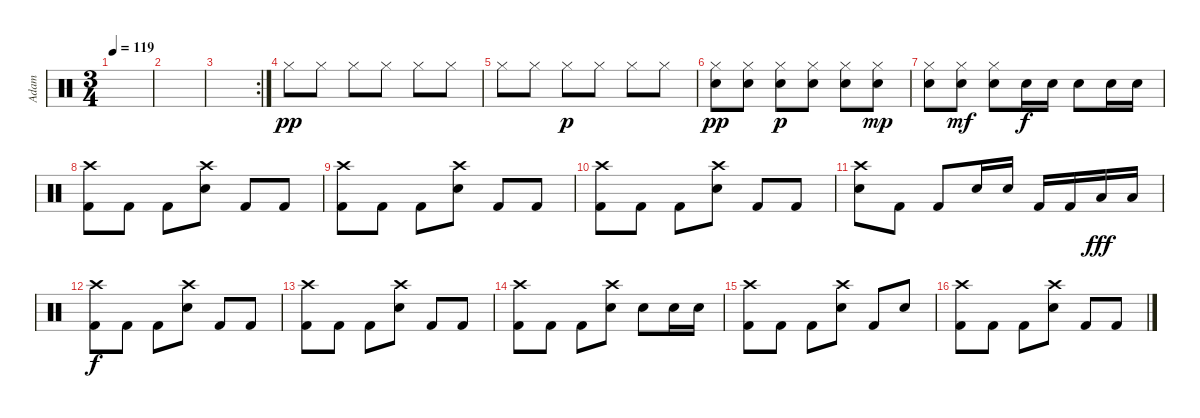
\track ("Adam" "Adam") {instrument percussion}
\staff {score}
\articulation defaults
\ts (3 4)
\tempo 119
\clef neutral
\ks c
|
|
\rc 2
|
"Hi-Hat (closed)".8{dy pp} "Hi-Hat (closed)".8 "Hi-Hat (closed)".8 "Hi-Hat (closed)".8 "Hi-Hat (closed)".8 "Hi-Hat (closed)".8 |
"Hi-Hat (closed)".8 "Hi-Hat (closed)".8 "Hi-Hat (closed)".8{dy p} "Hi-Hat (closed)".8 "Hi-Hat (closed)".8 "Hi-Hat (closed)".8 |
("Hi-Hat (closed)" "Electric Snare (hit)").8{dy pp} ("Hi-Hat (closed)" "Electric Snare (hit)").8 ("Hi-Hat (closed)" "Electric Snare (hit)").8{dy p} ("Hi-Hat (closed)" "Electric Snare (hit)").8 ("Hi-Hat (closed)" "Electric Snare (hit)").8 ("Hi-Hat (closed)" "Electric Snare (hit)").8{dy mp} |
("Hi-Hat (closed)" "Electric Snare (hit)").8 ("Hi-Hat (closed)" "Electric Snare (hit)").8{dy mf} ("Hi-Hat (closed)" "Electric Snare (hit)").8 "Electric Snare (hit)".16{dy f} "Electric Snare (hit)".16 "Electric Snare (hit)".8 "Electric Snare (hit)".16 "Electric Snare (hit)".16 |
("Crash high (hit)" "Kick (hit) 2").8 "Kick (hit) 2".8 "Kick (hit) 2".8 ("Crash high (hit)" "Electric Snare (hit)").8 "Kick (hit) 2".8 "Kick (hit) 2".8 |
("Crash high (hit)" "Kick (hit) 2").8 "Kick (hit) 2".8 "Kick (hit) 2".8 ("Crash high (hit)" "Electric Snare (hit)").8 "Kick (hit) 2".8 "Kick (hit) 2".8 |
("Crash high (hit)" "Kick (hit) 2").8 "Kick (hit) 2".8 "Kick (hit) 2".8 ("Crash high (hit)" "Electric Snare (hit)").8 "Kick (hit) 2".8 "Kick (hit) 2".8 |
("Crash high (hit)" "Electric Snare (hit)").8 "Kick (hit) 2".8 "Kick (hit) 2".8 "Electric Snare (hit)".16 "Electric Snare (hit)".16 "Kick (hit) 2".16 "Kick (hit) 2".16 "Low Tom (hit)".16{dy fff} "Low Tom (hit)".16 |
("Crash high (hit)" "Kick (hit) 2").8{dy f} "Kick (hit) 2".8 "Kick (hit) 2".8 ("Crash high (hit)" "Electric Snare (hit)").8 "Kick (hit) 2".8 "Kick (hit) 2".8 |
("Crash high (hit)" "Kick (hit) 2").8 "Kick (hit) 2".8 "Kick (hit) 2".8 ("Crash high (hit)" "Electric Snare (hit)").8 "Kick (hit) 2".8 "Kick (hit) 2".8 |
("Crash high (hit)" "Kick (hit) 2").8 "Kick (hit) 2".8 "Kick (hit) 2".8 ("Crash high (hit)" "Electric Snare (hit)").8 "Electric Snare (hit)".8 "Electric Snare (hit)".16 "Electric Snare (hit)".16 |
("Crash high (hit)" "Kick (hit) 2").8 "Kick (hit) 2".8 "Kick (hit) 2".8 ("Crash high (hit)" "Electric Snare (hit)").8 "Kick (hit) 2".8 "Electric Snare (hit)".8 |
("Crash high (hit)" "Kick (hit) 2").8 "Kick (hit) 2".8 "Kick (hit) 2".8 ("Crash high (hit)" "Electric Snare (hit)").8 "Kick (hit) 2".8 "Kick (hit) 2".8
